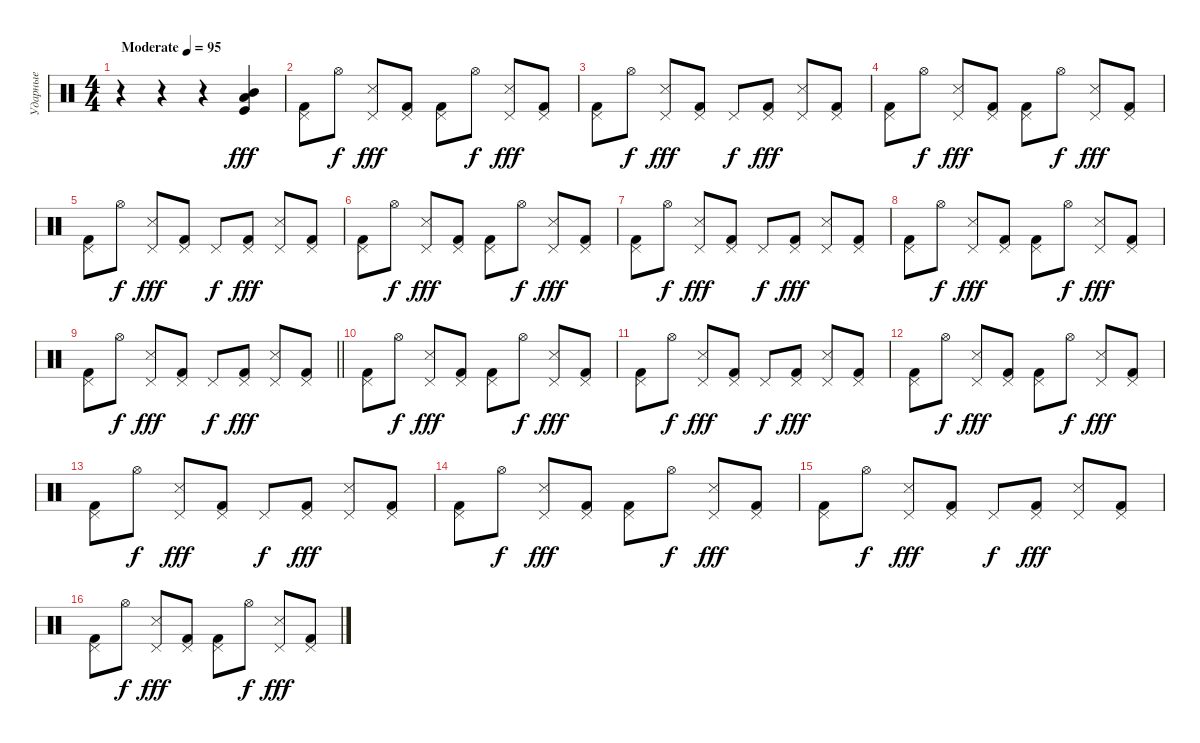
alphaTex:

\track ("Ударные" "Ударные") {instrument percussion}
\staff {score}
\articulation defaults
\ts (4 4)
\tempo (95 "Moderate")
\clef neutral
\ks c
r.4{dy fff} r.4 r.4 ("Mid Tom (hit)" "Low Floor Tom (hit)" "Kick (hit)").4 |
("Pedal Hi-Hat (hit)" "Kick (hit) 2").8 "Hi-Hat (open)".8{dy f} ("Pedal Hi-Hat (hit)" "Snare (side stick) 3").8{dy fff} ("Pedal Hi-Hat (hit)" "Kick (hit) 2").8 ("Pedal Hi-Hat (hit)" "Kick (hit) 2").8 "Hi-Hat (open)".8{dy f} ("Pedal Hi-Hat (hit)" "Snare (side stick) 3").8{dy fff} ("Pedal Hi-Hat (hit)" "Kick (hit) 2").8 |
("Pedal Hi-Hat (hit)" "Kick (hit) 2").8 "Hi-Hat (open)".8{dy f} ("Pedal Hi-Hat (hit)" "Snare (side stick) 3").8{dy fff} ("Pedal Hi-Hat (hit)" "Kick (hit) 2").8 "Pedal Hi-Hat (hit)".8{dy f} ("Pedal Hi-Hat (hit)" "Kick (hit) 2").8{dy fff} ("Pedal Hi-Hat (hit)" "Snare (side stick) 3").8 ("Pedal Hi-Hat (hit)" "Kick (hit) 2").8 |
("Pedal Hi-Hat (hit)" "Kick (hit) 2").8 "Hi-Hat (open)".8{dy f} ("Pedal Hi-Hat (hit)" "Snare (side stick) 3").8{dy fff} ("Pedal Hi-Hat (hit)" "Kick (hit) 2").8 ("Pedal Hi-Hat (hit)" "Kick (hit) 2").8 "Hi-Hat (open)".8{dy f} ("Pedal Hi-Hat (hit)" "Snare (side stick) 3").8{dy fff} ("Pedal Hi-Hat (hit)" "Kick (hit) 2").8 |
("Pedal Hi-Hat (hit)" "Kick (hit) 2").8 "Hi-Hat (open)".8{dy f} ("Pedal Hi-Hat (hit)" "Snare (side stick) 3").8{dy fff} ("Pedal Hi-Hat (hit)" "Kick (hit) 2").8 "Pedal Hi-Hat (hit)".8{dy f} ("Pedal Hi-Hat (hit)" "Kick (hit) 2").8{dy fff} ("Pedal Hi-Hat (hit)" "Snare (side stick) 3").8 ("Pedal Hi-Hat (hit)" "Kick (hit) 2").8 |
("Pedal Hi-Hat (hit)" "Kick (hit) 2").8 "Hi-Hat (open)".8{dy f} ("Pedal Hi-Hat (hit)" "Snare (side stick) 3").8{dy fff} ("Pedal Hi-Hat (hit)" "Kick (hit) 2").8 ("Pedal Hi-Hat (hit)" "Kick (hit) 2").8 "Hi-Hat (open)".8{dy f} ("Pedal Hi-Hat (hit)" "Snare (side stick) 3").8{dy fff} ("Pedal Hi-Hat (hit)" "Kick (hit) 2").8 |
("Pedal Hi-Hat (hit)" "Kick (hit) 2").8 "Hi-Hat (open)".8{dy f} ("Pedal Hi-Hat (hit)" "Snare (side stick) 3").8{dy fff} ("Pedal Hi-Hat (hit)" "Kick (hit) 2").8 "Pedal Hi-Hat (hit)".8{dy f} ("Pedal Hi-Hat (hit)" "Kick (hit) 2").8{dy fff} ("Pedal Hi-Hat (hit)" "Snare (side stick) 3").8 ("Pedal Hi-Hat (hit)" "Kick (hit) 2").8 |
("Pedal Hi-Hat (hit)" "Kick (hit) 2").8 "Hi-Hat (open)".8{dy f} ("Pedal Hi-Hat (hit)" "Snare (side stick) 3").8{dy fff} ("Pedal Hi-Hat (hit)" "Kick (hit) 2").8 ("Pedal Hi-Hat (hit)" "Kick (hit) 2").8 "Hi-Hat (open)".8{dy f} ("Pedal Hi-Hat (hit)" "Snare (side stick) 3").8{dy fff} ("Pedal Hi-Hat (hit)" "Kick (hit) 2").8 |
\barLineRight lightlight
("Pedal Hi-Hat (hit)" "Kick (hit) 2").8 "Hi-Hat (open)".8{dy f} ("Pedal Hi-Hat (hit)" "Snare (side stick) 3").8{dy fff} ("Pedal Hi-Hat (hit)" "Kick (hit) 2").8 "Pedal Hi-Hat (hit)".8{dy f} ("Pedal Hi-Hat (hit)" "Kick (hit) 2").8{dy fff} ("Pedal Hi-Hat (hit)" "Snare (side stick) 3").8 ("Pedal Hi-Hat (hit)" "Kick (hit) 2").8 |
("Pedal Hi-Hat (hit)" "Kick (hit) 2").8 "Hi-Hat (open)".8{dy f} ("Pedal Hi-Hat (hit)" "Snare (side stick) 3").8{dy fff} ("Pedal Hi-Hat (hit)" "Kick (hit) 2").8 ("Pedal Hi-Hat (hit)" "Kick (hit) 2").8 "Hi-Hat (open)".8{dy f} ("Pedal Hi-Hat (hit)" "Snare (side stick) 3").8{dy fff} ("Pedal Hi-Hat (hit)" "Kick (hit) 2").8 |
("Pedal Hi-Hat (hit)" "Kick (hit) 2").8 "Hi-Hat (open)".8{dy f} ("Pedal Hi-Hat (hit)" "Snare (side stick) 3").8{dy fff} ("Pedal Hi-Hat (hit)" "Kick (hit) 2").8 "Pedal Hi-Hat (hit)".8{dy f} ("Pedal Hi-Hat (hit)" "Kick (hit) 2").8{dy fff} ("Pedal Hi-Hat (hit)" "Snare (side stick) 3").8 ("Pedal Hi-Hat (hit)" "Kick (hit) 2").8 |
("Pedal Hi-Hat (hit)" "Kick (hit) 2").8 "Hi-Hat (open)".8{dy f} ("Pedal Hi-Hat (hit)" "Snare (side stick) 3").8{dy fff} ("Pedal Hi-Hat (hit)" "Kick (hit) 2").8 ("Pedal Hi-Hat (hit)" "Kick (hit) 2").8 "Hi-Hat (open)".8{dy f} ("Pedal Hi-Hat (hit)" "Snare (side stick) 3").8{dy fff} ("Pedal Hi-Hat (hit)" "Kick (hit) 2").8 |
("Pedal Hi-Hat (hit)" "Kick (hit) 2").8 "Hi-Hat (open)".8{dy f} ("Pedal Hi-Hat (hit)" "Snare (side stick) 3").8{dy fff} ("Pedal Hi-Hat (hit)" "Kick (hit) 2").8 "Pedal Hi-Hat (hit)".8{dy f} ("Pedal Hi-Hat (hit)" "Kick (hit) 2").8{dy fff} ("Pedal Hi-Hat (hit)" "Snare (side stick) 3").8 ("Pedal Hi-Hat (hit)" "Kick (hit) 2").8 |
("Pedal Hi-Hat (hit)" "Kick (hit) 2").8 "Hi-Hat (open)".8{dy f} ("Pedal Hi-Hat (hit)" "Snare (side stick) 3").8{dy fff} ("Pedal Hi-Hat (hit)" "Kick (hit) 2").8 ("Pedal Hi-Hat (hit)" "Kick (hit) 2").8 "Hi-Hat (open)".8{dy f} ("Pedal Hi-Hat (hit)" "Snare (side stick) 3").8{dy fff} ("Pedal Hi-Hat (hit)" "Kick (hit) 2").8 |
("Pedal Hi-Hat (hit)" "Kick (hit) 2").8 "Hi-Hat (open)".8{dy f} ("Pedal Hi-Hat (hit)" "Snare (side stick) 3").8{dy fff} ("Pedal Hi-Hat (hit)" "Kick (hit) 2").8 "Pedal Hi-Hat (hit)".8{dy f} ("Pedal Hi-Hat (hit)" "Kick (hit) 2").8{dy fff} ("Pedal Hi-Hat (hit)" "Snare (side stick) 3").8 ("Pedal Hi-Hat (hit)" "Kick (hit) 2").8 |
("Pedal Hi-Hat (hit)" "Kick (hit) 2").8 "Hi-Hat (open)".8{dy f} ("Pedal Hi-Hat (hit)" "Snare (side stick) 3").8{dy fff} ("Pedal Hi-Hat (hit)" "Kick (hit) 2").8 ("Pedal Hi-Hat (hit)" "Kick (hit) 2").8 "Hi-Hat (open)".8{dy f} ("Pedal Hi-Hat (hit)" "Snare (side stick) 3").8{dy fff} ("Pedal Hi-Hat (hit)" "Kick (hit) 2").8
